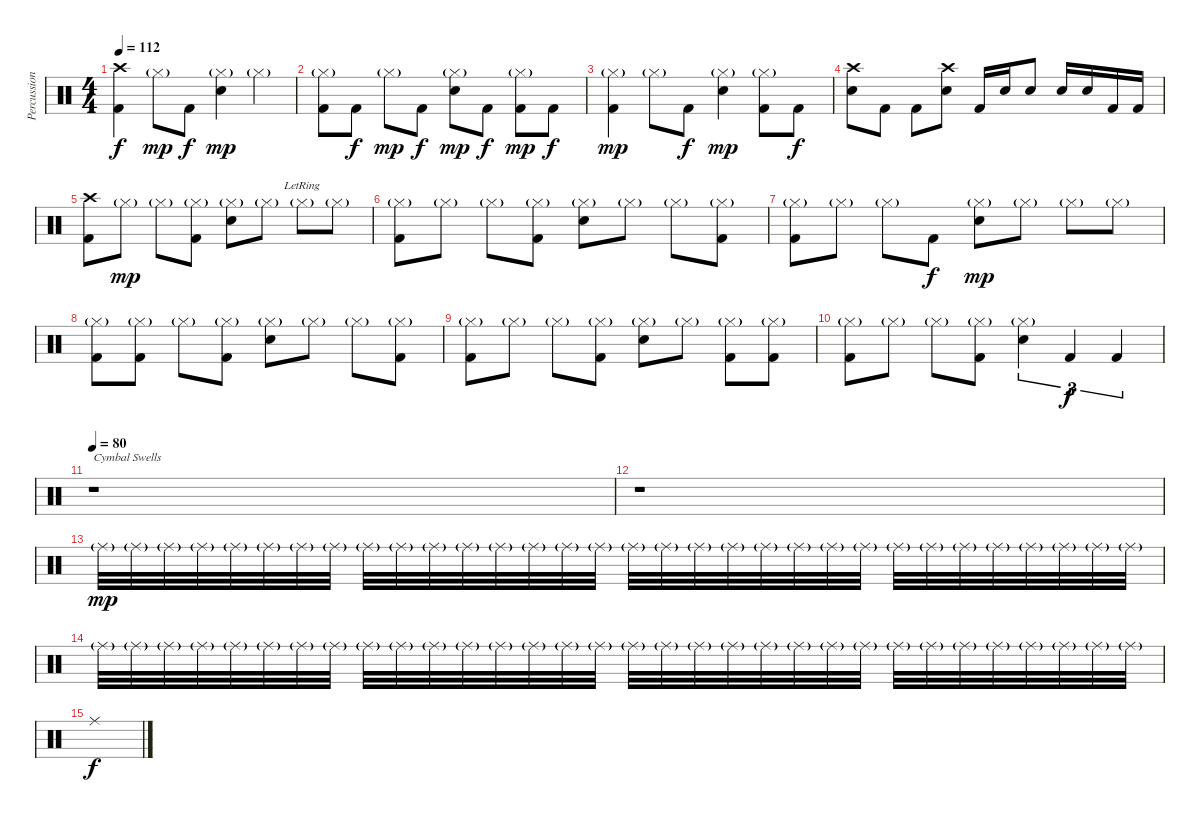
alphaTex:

\track ("Percussion" "Percussion") {instrument percussion}
\staff {score}
\articulation defaults
\ts (4 4)
\tempo 112
\clef neutral
\ks c
("Crash high (hit)" "Kick (hit) 2").4{dy f} "Hi-Hat (closed)"{g}.8{dy mp} "Kick (hit) 2".8{dy f} ("Hi-Hat (closed)"{g} "Snare (hit) 2").4{dy mp} "Hi-Hat (closed)"{g}.4 |
("Hi-Hat (closed)"{g} "Kick (hit) 2").8 "Kick (hit) 2".8{dy f} "Hi-Hat (closed)"{g}.8{dy mp} "Kick (hit) 2".8{dy f} ("Hi-Hat (closed)"{g} "Snare (hit) 2").8{dy mp} "Kick (hit) 2".8{dy f} ("Hi-Hat (closed)"{g} "Kick (hit) 2").8{dy mp} "Kick (hit) 2".8{dy f} |
("Hi-Hat (closed)"{g} "Kick (hit) 2").4{dy mp} "Hi-Hat (closed)"{g}.8 "Kick (hit) 2".8{dy f} ("Hi-Hat (closed)"{g} "Snare (hit) 2").4{dy mp} ("Hi-Hat (closed)"{g} "Kick (hit) 2").8 "Kick (hit) 2".8{dy f} |
("Crash high (hit)" "Snare (hit) 2").8 "Kick (hit) 2".8 "Kick (hit) 2".8 ("Crash high (hit)" "Snare (hit) 2").8 "Kick (hit) 2".16 "Snare (hit) 2".16 "Snare (hit) 2".8 "Snare (hit) 2".16 "Snare (hit) 2".16 "Kick (hit) 2".16 "Kick (hit) 2".16 |
("Crash high (hit)" "Kick (hit) 2").8 "Hi-Hat (closed)"{g}.8{dy mp} "Hi-Hat (closed)"{g}.8 ("Hi-Hat (closed)"{g} "Kick (hit) 2").8 ("Hi-Hat (closed)"{g} "Snare (hit) 2").8 "Hi-Hat (closed)"{g}.8 "Hi-Hat (closed)"{g lr}.8 "Hi-Hat (closed)"{g}.8 |
("Hi-Hat (closed)"{g} "Kick (hit) 2").8 "Hi-Hat (closed)"{g}.8 "Hi-Hat (closed)"{g}.8 ("Hi-Hat (closed)"{g} "Kick (hit) 2").8 ("Hi-Hat (closed)"{g} "Snare (hit) 2").8 "Hi-Hat (closed)"{g}.8 "Hi-Hat (closed)"{g}.8 ("Hi-Hat (closed)"{g} "Kick (hit) 2").8 |
("Hi-Hat (closed)"{g} "Kick (hit) 2").8 "Hi-Hat (closed)"{g}.8 "Hi-Hat (closed)"{g}.8 "Kick (hit) 2".8{dy f} ("Hi-Hat (closed)"{g} "Snare (hit) 2").8{dy mp} "Hi-Hat (closed)"{g}.8 "Hi-Hat (closed)"{g}.8 "Hi-Hat (closed)"{g}.8 |
("Hi-Hat (closed)"{g} "Kick (hit) 2").8 ("Hi-Hat (closed)"{g} "Kick (hit) 2").8 "Hi-Hat (closed)"{g}.8 ("Hi-Hat (closed)"{g} "Kick (hit) 2").8 ("Hi-Hat (closed)"{g} "Snare (hit) 2").8 "Hi-Hat (closed)"{g}.8 "Hi-Hat (closed)"{g}.8 ("Hi-Hat (closed)"{g} "Kick (hit) 2").8 |
("Hi-Hat (closed)"{g} "Kick (hit) 2").8 "Hi-Hat (closed)"{g}.8 "Hi-Hat (closed)"{g}.8 ("Hi-Hat (closed)"{g} "Kick (hit) 2").8 ("Hi-Hat (closed)"{g} "Electric Snare (hit)").8 "Hi-Hat (closed)"{g}.8 ("Hi-Hat (closed)"{g} "Kick (hit) 2").8 ("Hi-Hat (closed)"{g} "Kick (hit) 2").8 |
("Hi-Hat (closed)"{g} "Kick (hit) 2").8 "Hi-Hat (closed)"{g}.8 "Hi-Hat (closed)"{g}.8 ("Hi-Hat (closed)"{g} "Kick (hit) 2").8 ("Hi-Hat (closed)"{g} "Electric Snare (hit)").4{tu (3 2)} "Kick (hit) 2".4{tu (3 2) dy f} "Kick (hit) 2".4{tu (3 2)} |
\tempo 80
r.1{txt "Cymbal Swells"} |
r.1 |
"Ride (middle)"{g}.32{dy mp} "Ride (middle)"{g}.32 "Ride (middle)"{g}.32 "Ride (middle)"{g}.32 "Ride (middle)"{g}.32 "Ride (middle)"{g}.32 "Ride (middle)"{g}.32 "Ride (middle)"{g}.32 "Ride (middle)"{g}.32 "Ride (middle)"{g}.32 "Ride (middle)"{g}.32 "Ride (middle)"{g}.32 "Ride (middle)"{g}.32 "Ride (middle)"{g}.32 "Ride (middle)"{g}.32 "Ride (middle)"{g}.32 "Ride (middle)"{g}.32 "Ride (middle)"{g}.32 "Ride (middle)"{g}.32 "Ride (middle)"{g}.32 "Ride (middle)"{g}.32 "Ride (middle)"{g}.32 "Ride (middle)"{g}.32 "Ride (middle)"{g}.32 "Ride (middle)"{g}.32 "Ride (middle)"{g}.32 "Ride (middle)"{g}.32 "Ride (middle)"{g}.32 "Ride (middle)"{g}.32 "Ride (middle)"{g}.32 "Ride (middle)"{g}.32 "Ride (middle)"{g}.32 |
"Ride (middle)"{g}.32 "Ride (middle)"{g}.32 "Ride (middle)"{g}.32 "Ride (middle)"{g}.32 "Ride (middle)"{g}.32 "Ride (middle)"{g}.32 "Ride (middle)"{g}.32 "Ride (middle)"{g}.32 "Ride (middle)"{g}.32 "Ride (middle)"{g}.32 "Ride (middle)"{g}.32 "Ride (middle)"{g}.32 "Ride (middle)"{g}.32 "Ride (middle)"{g}.32 "Ride (middle)"{g}.32 "Ride (middle)"{g}.32 "Ride (middle)"{g}.32 "Ride (middle)"{g}.32 "Ride (middle)"{g}.32 "Ride (middle)"{g}.32 "Ride (middle)"{g}.32 "Ride (middle)"{g}.32 "Ride (middle)"{g}.32 "Ride (middle)"{g}.32 "Ride (middle)"{g}.32 "Ride (middle)"{g}.32 "Ride (middle)"{g}.32 "Ride (middle)"{g}.32 "Ride (middle)"{g}.32 "Ride (middle)"{g}.32 "Ride (middle)"{g}.32 "Ride (middle)"{g}.32 |
"Ride (middle)".1{dy f}
